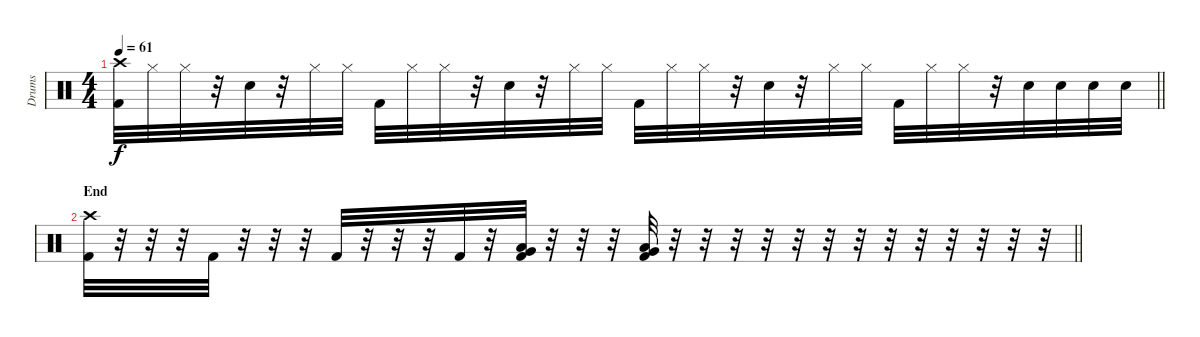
\track ("Drums" "Drums") {instrument percussion}
\staff {score}
\articulation defaults
\ts (4 4)
\tempo 61
\clef neutral
\barLineRight lightlight
\ks c
("Kick (hit) 2" "Crash high (hit)").32{dy f} "Hi-Hat (closed)".32 "Hi-Hat (closed)".32 r.32 "Snare (hit) 2".32 r.32 "Hi-Hat (closed)".32 "Hi-Hat (closed)".32 "Kick (hit) 2".32 "Hi-Hat (closed)".32 "Hi-Hat (closed)".32 r.32 "Snare (hit) 2".32 r.32 "Hi-Hat (closed)".32 "Hi-Hat (closed)".32 "Kick (hit) 2".32 "Hi-Hat (closed)".32 "Hi-Hat (closed)".32 r.32 "Snare (hit) 2".32 r.32 "Hi-Hat (closed)".32 "Hi-Hat (closed)".32 "Kick (hit) 2".32 "Hi-Hat (closed)".32 "Hi-Hat (closed)".32 r.32 "Snare (hit) 2".32 "Snare (hit) 2".32 "Snare (hit) 2".32 "Snare (hit) 2".32 |
\section ("" "End")
\barLineRight lightlight
("Crash high (hit)" "Kick (hit) 2").32 r.32 r.32 r.32 "Kick (hit) 2".32 r.32 r.32 r.32 "Kick (hit) 2".32 r.32 r.32 r.32 "Kick (hit) 2".32 r.32 ("Very Low Tom (hit)" "Low Tom (hit)" "Kick (hit) 2").32 r.32 r.32 r.32 ("Very Low Tom (hit)" "Low Tom (hit)" "Kick (hit) 2").32 r.32 r.32 r.32 r.32 r.32 r.32 r.32 r.32 r.32 r.32 r.32 r.32 r.32
